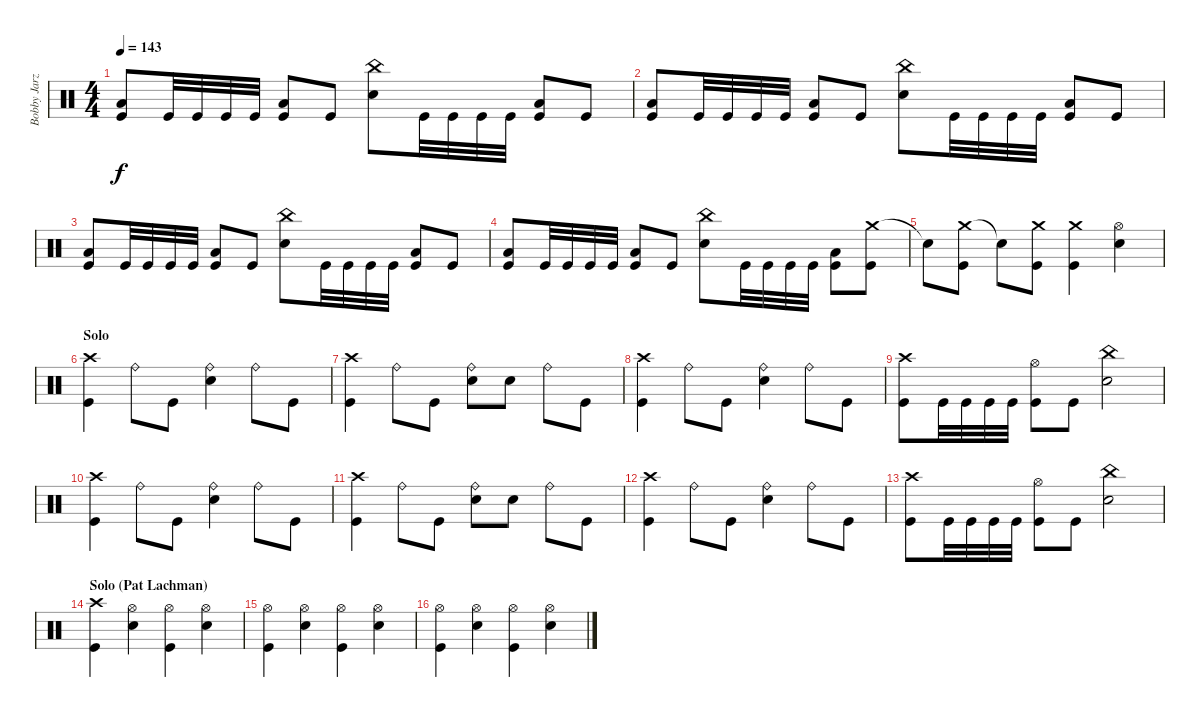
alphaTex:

\track ("Bobby Jarzombek" "Bobby Jarz") {instrument percussion}
\staff {score}
\articulation defaults
\ts (4 4)
\tempo 143
\clef neutral
\ks c
("Low Tom (hit)" "Kick (hit)").8{dy f} "Kick (hit)".32 "Kick (hit)".32 "Kick (hit)".32 "Kick (hit)".32 ("Low Tom (hit)" "Kick (hit)").8 "Kick (hit)".8 ("China (hit)" "Electric Snare (hit)").8 "Kick (hit)".32 "Kick (hit)".32 "Kick (hit)".32 "Kick (hit)".32 ("Low Tom (hit)" "Kick (hit)").8 "Kick (hit)".8 |
("Low Tom (hit)" "Kick (hit)").8 "Kick (hit)".32 "Kick (hit)".32 "Kick (hit)".32 "Kick (hit)".32 ("Low Tom (hit)" "Kick (hit)").8 "Kick (hit)".8 ("China (hit)" "Electric Snare (hit)").8 "Kick (hit)".32 "Kick (hit)".32 "Kick (hit)".32 "Kick (hit)".32 ("Low Tom (hit)" "Kick (hit)").8 "Kick (hit)".8 |
("Low Tom (hit)" "Kick (hit)").8 "Kick (hit)".32 "Kick (hit)".32 "Kick (hit)".32 "Kick (hit)".32 ("Low Tom (hit)" "Kick (hit)").8 "Kick (hit)".8 ("China (hit)" "Electric Snare (hit)").8 "Kick (hit)".32 "Kick (hit)".32 "Kick (hit)".32 "Kick (hit)".32 ("Low Tom (hit)" "Kick (hit)").8 "Kick (hit)".8 |
("Low Tom (hit)" "Kick (hit)").8 "Kick (hit)".32 "Kick (hit)".32 "Kick (hit)".32 "Kick (hit)".32 ("Low Tom (hit)" "Kick (hit)").8 "Kick (hit)".8 ("China (hit)" "Electric Snare (hit)").8 "Kick (hit)".32 "Kick (hit)".32 "Kick (hit)".32 "Kick (hit)".32 ("Low Tom (hit)" "Kick (hit)").8 ("Crash medium (hit)" "Kick (hit)").8 |
"Snare (hit)"{t}.8{volume 0} ("Crash medium (hit)" "Kick (hit)").8{volume 13} "Snare (hit)"{t}.8{volume 0} ("Crash medium (hit)" "Kick (hit)").8{volume 13} ("Crash medium (hit)" "Kick (hit)").4 ("Hi-Hat (open)" "Electric Snare (hit)").4{volume 13} |
\section ("" "Solo")
("Crash high (hit)" "Kick (hit)").4 "Ride (bell)".8 "Kick (hit)".8 ("Ride (bell)" "Electric Snare (hit)").4 "Ride (bell)".8 "Kick (hit)".8 |
("Crash high (hit)" "Kick (hit)").4 "Ride (bell)".8 "Kick (hit)".8 ("Ride (bell)" "Electric Snare (hit)").8 "Electric Snare (hit)".8 "Ride (bell)".8 "Kick (hit)".8 |
("Crash high (hit)" "Kick (hit)").4 "Ride (bell)".8 "Kick (hit)".8 ("Ride (bell)" "Electric Snare (hit)").4 "Ride (bell)".8 "Kick (hit)".8 |
("Crash high (hit)" "Kick (hit)").8 "Kick (hit)".32 "Kick (hit)".32 "Kick (hit)".32 "Kick (hit)".32 ("Hi-Hat (open)" "Kick (hit)").8 "Kick (hit)".8 ("China (hit)" "Electric Snare (hit)").2 |
("Crash high (hit)" "Kick (hit)").4 "Ride (bell)".8 "Kick (hit)".8 ("Ride (bell)" "Electric Snare (hit)").4 "Ride (bell)".8 "Kick (hit)".8 |
("Crash high (hit)" "Kick (hit)").4 "Ride (bell)".8 "Kick (hit)".8 ("Ride (bell)" "Electric Snare (hit)").8 "Electric Snare (hit)".8 "Ride (bell)".8 "Kick (hit)".8 |
("Crash high (hit)" "Kick (hit)").4 "Ride (bell)".8 "Kick (hit)".8 ("Ride (bell)" "Electric Snare (hit)").4 "Ride (bell)".8 "Kick (hit)".8 |
("Crash high (hit)" "Kick (hit)").8 "Kick (hit)".32 "Kick (hit)".32 "Kick (hit)".32 "Kick (hit)".32 ("Hi-Hat (open)" "Kick (hit)").8 "Kick (hit)".8 ("China (hit)" "Electric Snare (hit)").2 |
\section ("" "Solo (Pat Lachman)")
("Crash high (hit)" "Kick (hit)").4 ("Hi-Hat (open)" "Electric Snare (hit)").4 ("Hi-Hat (open)" "Kick (hit)").4 ("Hi-Hat (open)" "Electric Snare (hit)").4 |
("Hi-Hat (open)" "Kick (hit)").4 ("Hi-Hat (open)" "Electric Snare (hit)").4 ("Hi-Hat (open)" "Kick (hit)").4 ("Hi-Hat (open)" "Electric Snare (hit)").4 |
("Hi-Hat (open)" "Kick (hit)").4 ("Hi-Hat (open)" "Electric Snare (hit)").4 ("Hi-Hat (open)" "Kick (hit)").4 ("Hi-Hat (open)" "Electric Snare (hit)").4
